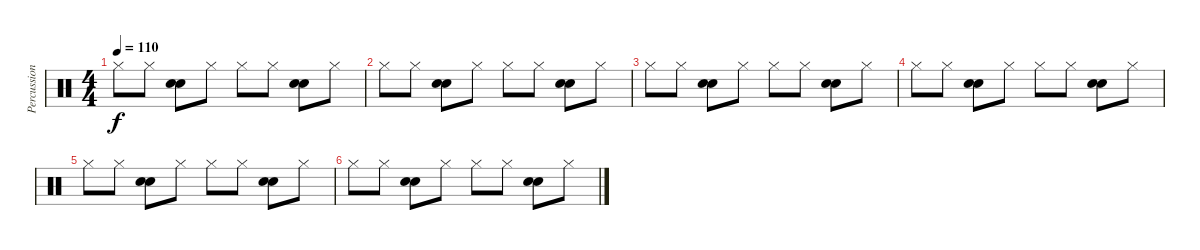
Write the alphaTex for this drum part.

\track ("Percussions" "Percussion") {instrument percussion}
\staff {score}
\articulation defaults
\ts (4 4)
\tempo 110
\clef neutral
\ks c "Hi-Hat (closed)".8{dy f} "Hi-Hat (closed)".8
("Snare (hit) 2" "Electric Snare (hit)").8 "Hi-Hat (closed)".8 "Hi-Hat (closed)".8 "Hi-Hat (closed)".8 ("Snare (hit) 2" "Electric Snare (hit)").8 "Hi-Hat (closed)".8 |
"Hi-Hat (closed)".8 "Hi-Hat (closed)".8 ("Snare (hit) 2" "Electric Snare (hit)").8 "Hi-Hat (closed)".8 "Hi-Hat (closed)".8 "Hi-Hat (closed)".8 ("Snare (hit) 2" "Electric Snare (hit)").8 "Hi-Hat (closed)".8 |
"Hi-Hat (closed)".8 "Hi-Hat (closed)".8 ("Snare (hit) 2" "Electric Snare (hit)").8 "Hi-Hat (closed)".8 "Hi-Hat (closed)".8 "Hi-Hat (closed)".8 ("Snare (hit) 2" "Electric Snare (hit)").8 "Hi-Hat (closed)".8 |
"Hi-Hat (closed)".8 "Hi-Hat (closed)".8 ("Snare (hit) 2" "Electric Snare (hit)").8 "Hi-Hat (closed)".8 "Hi-Hat (closed)".8 "Hi-Hat (closed)".8 ("Snare (hit) 2" "Electric Snare (hit)").8 "Hi-Hat (closed)".8 |
"Hi-Hat (closed)".8 "Hi-Hat (closed)".8 ("Snare (hit) 2" "Electric Snare (hit)").8 "Hi-Hat (closed)".8 "Hi-Hat (closed)".8 "Hi-Hat (closed)".8 ("Snare (hit) 2" "Electric Snare (hit)").8 "Hi-Hat (closed)".8 |
"Hi-Hat (closed)".8 "Hi-Hat (closed)".8 ("Snare (hit) 2" "Electric Snare (hit)").8 "Hi-Hat (closed)".8 "Hi-Hat (closed)".8 "Hi-Hat (closed)".8 ("Snare (hit) 2" "Electric Snare (hit)").8 "Hi-Hat (closed)".8
